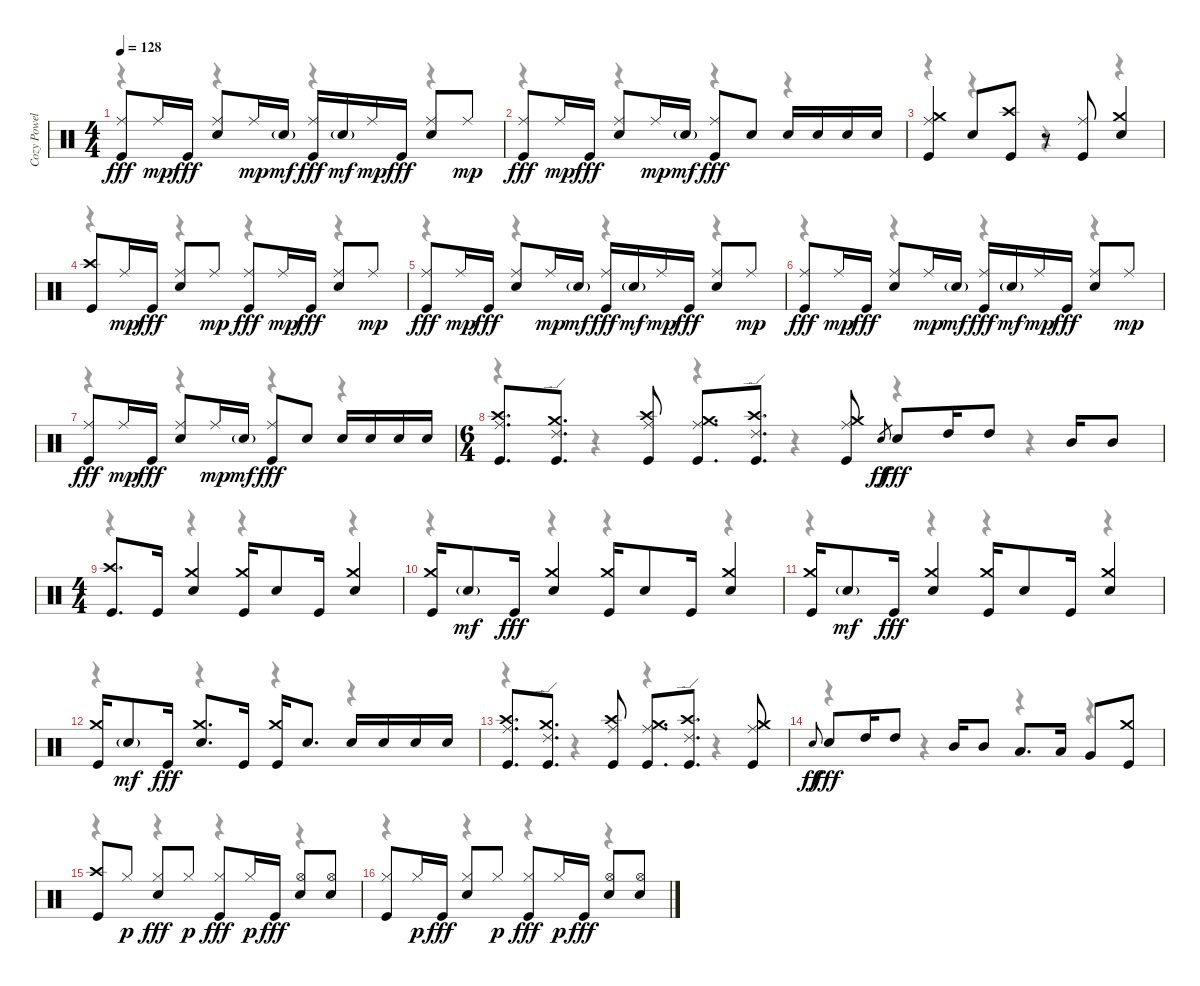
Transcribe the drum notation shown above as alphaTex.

\track ("Cozy Powell - Drums" "Cozy Powel") {instrument percussion}
\staff {score}
\articulation defaults
\voice
\ts (4 4)
\tempo 128
\clef neutral
\ks c
("Kick (hit)" "Ride (middle)").8{dy fff} "Ride (middle)".16{dy mp} "Kick (hit)".16{dy fff} ("Snare (hit) 2" "Ride (middle)").8 "Ride (middle)".16{dy mp} "Snare (hit) 2"{g}.16{dy mf} ("Kick (hit)" "Ride (middle)").16{dy fff} "Snare (hit) 2"{g}.16{dy mf} "Ride (middle)".16{dy mp} "Kick (hit)".16{dy fff} ("Snare (hit) 2" "Ride (middle)").8 "Ride (middle)".8{dy mp} |
("Kick (hit)" "Ride (middle)").8{dy fff} "Ride (middle)".16{dy mp} "Kick (hit)".16{dy fff} ("Snare (hit) 2" "Ride (middle)").8 "Ride (middle)".16{dy mp} "Snare (hit) 2"{g}.16{dy mf} ("Kick (hit)" "Ride (middle)").8{dy fff} "Snare (hit) 2".8 "Snare (hit) 2".16 "Snare (hit) 2".16 "Snare (hit) 2".16 "Snare (hit) 2".16 |
("Kick (hit)" "Ride (middle)" "Crash medium (hit)").4 "Snare (hit) 2".8 ("Kick (hit)" "Crash high (hit)").8 r.8 ("Kick (hit)" "Ride (middle)").8 ("Snare (hit) 2" "Crash medium (hit)").4 |
("Kick (hit)" "Crash high (hit)").8 "Ride (middle)".16{dy mp} "Kick (hit)".16{dy fff} ("Snare (hit) 2" "Ride (middle)").8 "Ride (middle)".8{dy mp} ("Kick (hit)" "Ride (middle)").8{dy fff} "Ride (middle)".16{dy mp} "Kick (hit)".16{dy fff} ("Snare (hit) 2" "Ride (middle)").8 "Ride (middle)".8{dy mp} |
("Kick (hit)" "Ride (middle)").8{dy fff} "Ride (middle)".16{dy mp} "Kick (hit)".16{dy fff} ("Snare (hit) 2" "Ride (middle)").8 "Ride (middle)".16{dy mp} "Snare (hit) 2"{g}.16{dy mf} ("Kick (hit)" "Ride (middle)").16{dy fff} "Snare (hit) 2"{g}.16{dy mf} "Ride (middle)".16{dy mp} "Kick (hit)".16{dy fff} ("Snare (hit) 2" "Ride (middle)").8 "Ride (middle)".8{dy mp} |
("Kick (hit)" "Ride (middle)").8{dy fff} "Ride (middle)".16{dy mp} "Kick (hit)".16{dy fff} ("Snare (hit) 2" "Ride (middle)").8 "Ride (middle)".16{dy mp} "Snare (hit) 2"{g}.16{dy mf} ("Kick (hit)" "Ride (middle)").16{dy fff} "Snare (hit) 2"{g}.16{dy mf} "Ride (middle)".16{dy mp} "Kick (hit)".16{dy fff} ("Snare (hit) 2" "Ride (middle)").8 "Ride (middle)".8{dy mp} |
("Kick (hit)" "Ride (middle)").8{dy fff} "Ride (middle)".16{dy mp} "Kick (hit)".16{dy fff} ("Snare (hit) 2" "Ride (middle)").8 "Ride (middle)".16{dy mp} "Snare (hit) 2"{g}.16{dy mf} ("Kick (hit)" "Ride (middle)").8{dy fff} "Snare (hit) 2".8 "Snare (hit) 2".16 "Snare (hit) 2".16 "Snare (hit) 2".16 "Snare (hit) 2".16 |
\ts (6 4)
("Kick (hit)" "Ride (middle)" "Crash high (hit)").8{d} ("Kick (hit)" "Ride (edge) 2" "Crash medium (hit)").8{d} ("Kick (hit)" "Ride (middle)" "Crash high (hit)").8 ("Kick (hit)" "Ride (middle)" "Crash medium (hit)").8{d} ("Kick (hit)" "Ride (edge) 2" "Crash high (hit)").8{d} ("Kick (hit)" "Ride (middle)" "Crash medium (hit)").8 "Snare (hit)".8{gr dy ff} "Snare (hit) 2".8{dy fff} "High Tom (hit)".16 "High Tom (hit)".8 "Mid Tom (hit)".16 "Mid Tom (hit)".8 |
\ts (4 4)
("Kick (hit)" "Crash high (hit)").8{d} "Kick (hit)".16 ("Snare (hit) 2" "Crash medium (hit)").4 ("Kick (hit)" "Crash medium (hit)").16 "Snare (hit) 2".8 "Kick (hit)".16 ("Snare (hit) 2" "Crash medium (hit)").4 |
("Kick (hit)" "Crash medium (hit)").16 "Snare (hit) 2"{g}.8{dy mf} "Kick (hit)".16{dy fff} ("Snare (hit) 2" "Crash medium (hit)").4 ("Kick (hit)" "Crash medium (hit)").16 "Snare (hit) 2".8 "Kick (hit)".16 ("Snare (hit) 2" "Crash medium (hit)").4 |
("Kick (hit)" "Crash medium (hit)").16 "Snare (hit) 2"{g}.8{dy mf} "Kick (hit)".16{dy fff} ("Snare (hit) 2" "Crash medium (hit)").4 ("Kick (hit)" "Crash medium (hit)").16 "Snare (hit) 2".8 "Kick (hit)".16 ("Snare (hit) 2" "Crash medium (hit)").4 |
("Kick (hit)" "Crash medium (hit)").16 "Snare (hit) 2"{g}.8{dy mf} "Kick (hit)".16{dy fff} ("Snare (hit) 2" "Crash medium (hit)").8{d} "Kick (hit)".16 ("Kick (hit)" "Crash medium (hit)").16 "Snare (hit) 2".8{d} "Snare (hit) 2".16 "Snare (hit) 2".16 "Snare (hit) 2".16 "Snare (hit) 2".16 |
("Kick (hit)" "Ride (middle)" "Crash high (hit)").8{d} ("Kick (hit)" "Ride (edge) 2" "Crash medium (hit)").8{d} ("Kick (hit)" "Ride (middle)" "Crash high (hit)").8 ("Kick (hit)" "Ride (middle)" "Crash medium (hit)").8{d} ("Kick (hit)" "Ride (edge) 2" "Crash high (hit)").8{d} ("Kick (hit)" "Ride (middle)" "Crash medium (hit)").8 |
"Snare (hit)".8{gr onbeat dy ff} "Snare (hit) 2".8{dy fff} "High Tom (hit)".16 "High Tom (hit)".8 "Mid Tom (hit)".16 "Mid Tom (hit)".8 "Low Tom (hit)".8{d} "Low Tom (hit)".16 "Very Low Tom (hit)".8 ("Kick (hit)" "Crash medium (hit)").8 |
("Kick (hit)" "Crash high (hit)").8 "Hi-Hat (closed)".8{dy p} ("Snare (hit) 2" "Hi-Hat (closed)").8{dy fff} "Hi-Hat (closed)".8{dy p} ("Kick (hit)" "Hi-Hat (closed)").8{dy fff} "Hi-Hat (closed)".16{dy p} "Kick (hit)".16{dy fff} ("Snare (hit) 2" "Hi-Hat (open)").8 ("Snare (hit) 2" "Hi-Hat (open)").8 |
("Kick (hit)" "Hi-Hat (closed)").8 "Hi-Hat (closed)".16{dy p} "Kick (hit)".16{dy fff} ("Snare (hit) 2" "Hi-Hat (closed)").8 "Hi-Hat (closed)".8{dy p} ("Kick (hit)" "Hi-Hat (closed)").8{dy fff} "Hi-Hat (closed)".16{dy p} "Kick (hit)".16{dy fff} ("Snare (hit) 2" "Hi-Hat (open)").8 ("Snare (hit) 2" "Hi-Hat (open)").8
\voice
\clef neutral
\ottava regular
\simile none
\ks c
r.4{dy f} r.4 r.4 r.4 |
r.4 r.4 r.4 r.4 |
r.4 r.4 r.4 r.4 |
r.4 r.4 r.4 r.4 |
r.4 r.4 r.4 r.4 |
r.4 r.4 r.4 r.4 |
r.4 r.4 r.4 r.4 |
r.4 r.4 r.4 r.4 r.4 r.4 |
r.4 r.4 r.4 r.4 |
r.4 r.4 r.4 r.4 |
r.4 r.4 r.4 r.4 |
r.4 r.4 r.4 r.4 |
r.4 r.4 r.4 r.4 |
r.4 r.4 r.4 r.4 |
r.4 r.4 r.4 r.4 |
r.4 r.4 r.4 r.4
